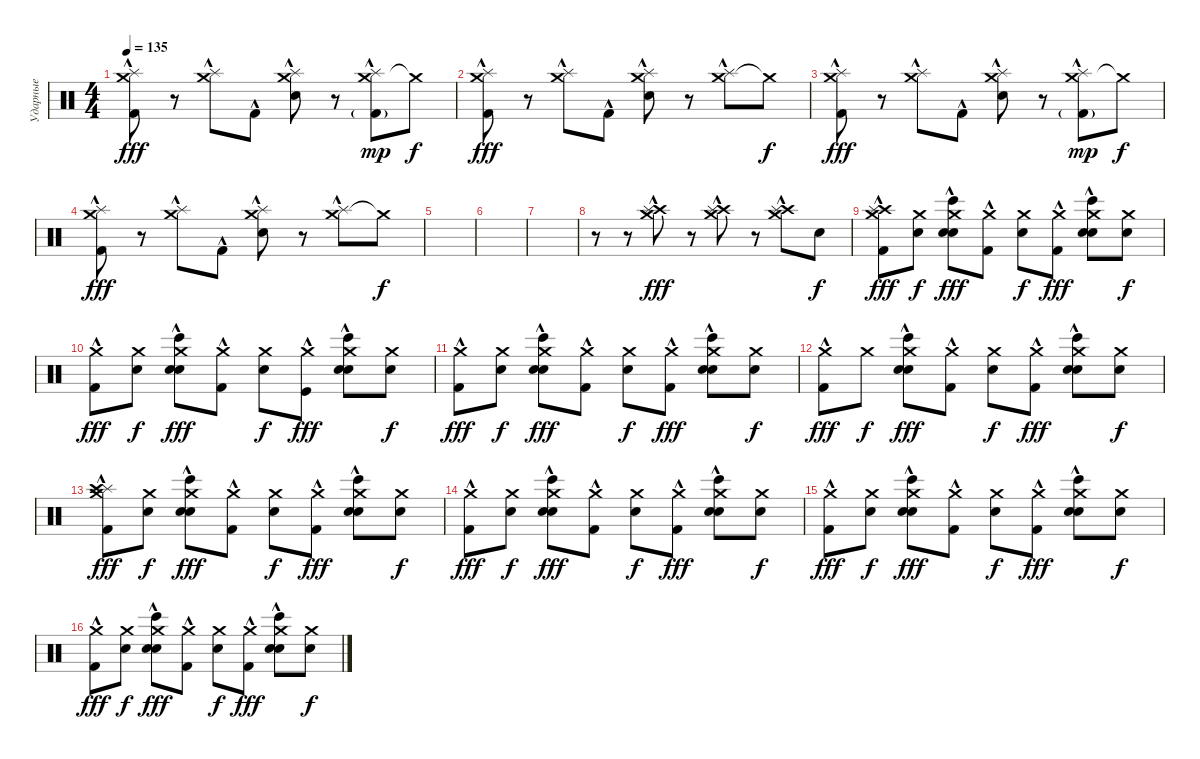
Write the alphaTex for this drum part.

\track ("Ударные" "Ударные") {instrument percussion}
\staff {score}
\articulation defaults
\ts (4 4)
\tempo 135
\clef neutral
\ks c
("Crash medium (hit)" "Splash (hit)"{hac} "Kick (hit) 2"{hac}).8{dy fff} r.8 ("Crash medium (hit)" "Splash (hit)"{hac}).8 "Kick (hit) 2"{hac}.8 ("Crash medium (hit)" "Splash (hit)"{hac} "Electric Snare (hit)").8 r.8 ("Crash medium (hit)" "Splash (hit)"{hac} "Kick (hit) 2"{g}).8{dy mp} "Crash medium (hit)"{t}.8{dy f} |
("Crash medium (hit)" "Splash (hit)"{hac} "Kick (hit) 2"{hac}).8{dy fff} r.8 ("Crash medium (hit)" "Splash (hit)"{hac}).8 "Kick (hit) 2"{hac}.8 ("Crash medium (hit)" "Splash (hit)"{hac} "Electric Snare (hit)").8 r.8 ("Crash medium (hit)" "Splash (hit)"{hac}).8 "Crash medium (hit)"{t}.8{dy f} |
("Crash medium (hit)" "Splash (hit)"{hac} "Kick (hit) 2"{hac}).8{dy fff} r.8 ("Crash medium (hit)" "Splash (hit)"{hac}).8 "Kick (hit) 2"{hac}.8 ("Crash medium (hit)" "Splash (hit)"{hac} "Electric Snare (hit)").8 r.8 ("Crash medium (hit)" "Splash (hit)"{hac} "Kick (hit) 2"{g}).8{dy mp} "Crash medium (hit)"{t}.8{dy f} |
("Crash medium (hit)" "Splash (hit)"{hac} "Kick (hit) 2"{hac}).8{dy fff} r.8 ("Crash medium (hit)" "Splash (hit)"{hac}).8 "Kick (hit) 2"{hac}.8 ("Crash medium (hit)" "Splash (hit)"{hac} "Electric Snare (hit)").8 r.8 ("Crash medium (hit)" "Splash (hit)"{hac}).8 "Crash medium (hit)"{t}.8{dy f} |
|
|
|
r.8 r.8 ("Crash high (hit)" "Crash medium (hit)"{hac} "Splash (hit)").8{dy fff} r.8 ("Crash high (hit)" "Crash medium (hit)"{hac} "Splash (hit)").8 r.8 ("Crash high (hit)" "Crash medium (hit)"{hac} "Splash (hit)").8 "Snare (hit)".8{dy f} |
("Crash medium (hit)"{hac} "Crash high (hit)" "Splash (hit)"{hac} "Kick (hit) 2"{hac}).8{dy fff} ("Crash medium (hit)" "Snare (hit)").8{dy f} ("Crash medium (hit)" "Snare (hit) 2" "Bongo High (hit)" "Electric Snare (hit)"{hac}).8{dy fff} ("Crash medium (hit)" "Kick (hit) 2"{hac}).8 ("Crash medium (hit)" "Snare (hit)").8{dy f} ("Crash medium (hit)" "Kick (hit) 2"{hac}).8{dy fff} ("Crash medium (hit)" "Snare (hit) 2" "Bongo High (hit)" "Electric Snare (hit)"{hac}).8 ("Crash medium (hit)" "Snare (hit)").8{dy f} |
("Crash medium (hit)" "Kick (hit) 2"{hac}).8{dy fff} ("Crash medium (hit)" "Snare (hit)").8{dy f} ("Crash medium (hit)" "Snare (hit) 2" "Bongo High (hit)" "Electric Snare (hit)"{hac}).8{dy fff} ("Crash medium (hit)" "Kick (hit) 2"{hac}).8 ("Crash medium (hit)" "Snare (hit)").8{dy f} ("Crash medium (hit)" "Kick (hit)"{hac}).8{dy fff} ("Crash medium (hit)" "Snare (hit) 2" "Bongo High (hit)" "Electric Snare (hit)"{hac}).8 ("Crash medium (hit)" "Snare (hit)").8{dy f} |
("Crash medium (hit)" "Kick (hit) 2"{hac}).8{dy fff} ("Crash medium (hit)" "Snare (hit)").8{dy f} ("Crash medium (hit)" "Snare (hit) 2" "Bongo High (hit)" "Electric Snare (hit)"{hac}).8{dy fff} ("Crash medium (hit)" "Kick (hit) 2"{hac}).8 ("Crash medium (hit)" "Snare (hit)").8{dy f} ("Crash medium (hit)" "Kick (hit) 2"{hac}).8{dy fff} ("Crash medium (hit)" "Snare (hit) 2" "Bongo High (hit)" "Electric Snare (hit)"{hac}).8 ("Crash medium (hit)" "Snare (hit)").8{dy f} |
("Crash medium (hit)" "Kick (hit) 2"{hac}).8{dy fff} "Crash medium (hit)".8{dy f} ("Crash medium (hit)" "Snare (hit) 2" "Bongo High (hit)" "Electric Snare (hit)"{hac}).8{dy fff} ("Crash medium (hit)" "Kick (hit) 2"{hac}).8 ("Crash medium (hit)" "Snare (hit)").8{dy f} ("Crash medium (hit)" "Kick (hit) 2"{hac}).8{dy fff} ("Crash medium (hit)" "Snare (hit) 2" "Bongo High (hit)" "Electric Snare (hit)"{hac}).8 ("Crash medium (hit)" "Snare (hit)").8{dy f} |
("Crash medium (hit)" "Splash (hit)"{hac} "Crash high (hit)"{hac} "Kick (hit) 2"{hac}).8{dy fff} ("Crash medium (hit)" "Snare (hit)").8{dy f} ("Crash medium (hit)" "Bongo High (hit)" "Snare (hit) 2" "Electric Snare (hit)"{hac}).8{dy fff} ("Crash medium (hit)" "Kick (hit) 2"{hac}).8 ("Crash medium (hit)" "Snare (hit)").8{dy f} ("Crash medium (hit)" "Kick (hit) 2"{hac}).8{dy fff} ("Crash medium (hit)" "Bongo High (hit)" "Snare (hit) 2" "Electric Snare (hit)"{hac}).8 ("Crash medium (hit)" "Snare (hit)").8{dy f} |
("Crash medium (hit)" "Kick (hit) 2"{hac}).8{dy fff} ("Crash medium (hit)" "Snare (hit)").8{dy f} ("Crash medium (hit)" "Bongo High (hit)" "Snare (hit) 2" "Electric Snare (hit)"{hac}).8{dy fff} ("Crash medium (hit)" "Kick (hit) 2"{hac}).8 ("Crash medium (hit)" "Snare (hit)").8{dy f} ("Crash medium (hit)" "Kick (hit) 2"{hac}).8{dy fff} ("Crash medium (hit)" "Bongo High (hit)" "Snare (hit) 2" "Electric Snare (hit)"{hac}).8 ("Crash medium (hit)" "Snare (hit)").8{dy f} |
("Crash medium (hit)" "Kick (hit) 2"{hac}).8{dy fff} ("Crash medium (hit)" "Snare (hit)").8{dy f} ("Crash medium (hit)" "Bongo High (hit)" "Snare (hit) 2" "Electric Snare (hit)"{hac}).8{dy fff} ("Crash medium (hit)" "Kick (hit) 2"{hac}).8 ("Crash medium (hit)" "Snare (hit)").8{dy f} ("Crash medium (hit)" "Kick (hit) 2"{hac}).8{dy fff} ("Crash medium (hit)" "Bongo High (hit)" "Snare (hit) 2" "Electric Snare (hit)"{hac}).8 ("Crash medium (hit)" "Snare (hit)").8{dy f} |
("Crash medium (hit)" "Kick (hit) 2"{hac}).8{dy fff} ("Crash medium (hit)" "Snare (hit)").8{dy f} ("Crash medium (hit)" "Bongo High (hit)" "Snare (hit) 2" "Electric Snare (hit)"{hac}).8{dy fff} ("Crash medium (hit)" "Kick (hit) 2"{hac}).8 ("Crash medium (hit)" "Snare (hit)").8{dy f} ("Crash medium (hit)" "Kick (hit) 2"{hac}).8{dy fff} ("Crash medium (hit)" "Bongo High (hit)" "Snare (hit) 2" "Electric Snare (hit)"{hac}).8 ("Crash medium (hit)" "Snare (hit)").8{dy f}
